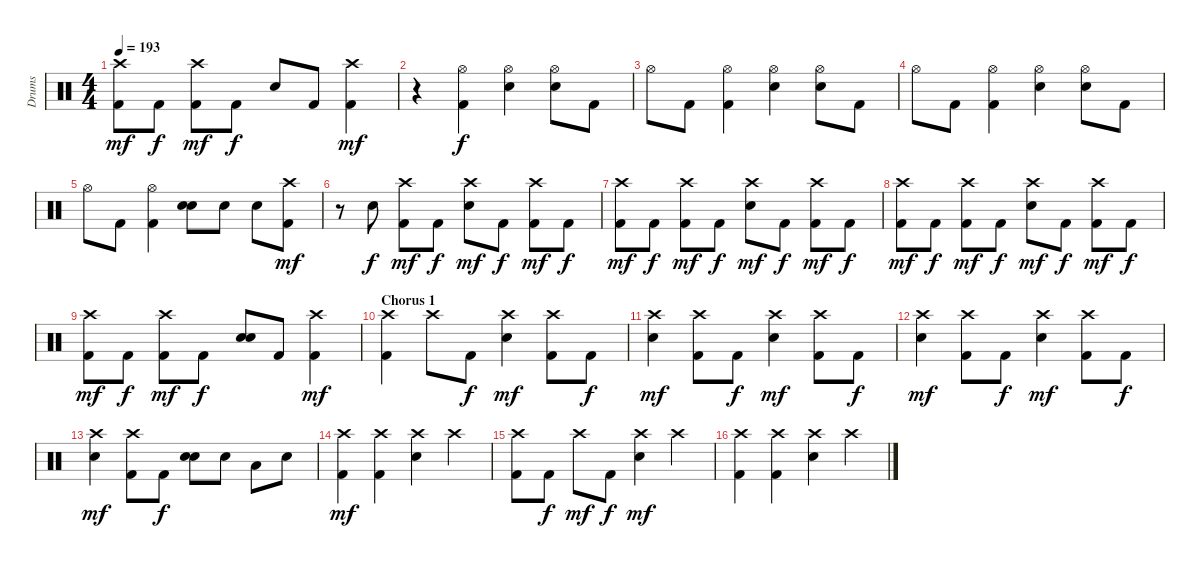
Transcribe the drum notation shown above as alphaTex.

\track ("Drums" "Drums") {instrument percussion}
\staff {score}
\articulation defaults
\ts (4 4)
\tempo 193
\clef neutral
\ks c
("Crash high (hit)" "Kick (hit) 2").8{dy mf} "Kick (hit) 2".8{dy f} ("Crash high (hit)" "Kick (hit) 2").8{dy mf} "Kick (hit) 2".8{dy f} "Electric Snare (hit)".8 "Kick (hit) 2".8 ("Crash high (hit)" "Kick (hit) 2").4{dy mf} |
r.4 ("Hi-Hat (open)" "Kick (hit) 2").4{dy f} ("Hi-Hat (open)" "Electric Snare (hit)").4 ("Hi-Hat (open)" "Electric Snare (hit)").8 "Kick (hit) 2".8 |
"Hi-Hat (open)".8 "Kick (hit) 2".8 ("Hi-Hat (open)" "Kick (hit) 2").4 ("Hi-Hat (open)" "Electric Snare (hit)").4 ("Hi-Hat (open)" "Electric Snare (hit)").8 "Kick (hit) 2".8 |
"Hi-Hat (open)".8 "Kick (hit) 2".8 ("Hi-Hat (open)" "Kick (hit) 2").4 ("Hi-Hat (open)" "Electric Snare (hit)").4 ("Hi-Hat (open)" "Electric Snare (hit)").8 "Kick (hit) 2".8 |
"Hi-Hat (open)".8 "Kick (hit) 2".8 ("Hi-Hat (open)" "Kick (hit) 2").4 ("Electric Snare (hit)" "Electric Snare (hit)").8{bd 120} "Electric Snare (hit)".8 "Electric Snare (hit)".8 ("Crash high (hit)" "Kick (hit) 2").8{dy mf} |
r.8 "Electric Snare (hit)".8{dy f} ("Crash high (hit)" "Kick (hit) 2").8{dy mf} "Kick (hit) 2".8{dy f} ("Crash high (hit)" "Electric Snare (hit)").8{dy mf} "Kick (hit) 2".8{dy f} ("Crash high (hit)" "Kick (hit) 2").8{dy mf} "Kick (hit) 2".8{dy f} |
("Crash high (hit)" "Kick (hit) 2").8{dy mf} "Kick (hit) 2".8{dy f} ("Crash high (hit)" "Kick (hit) 2").8{dy mf} "Kick (hit) 2".8{dy f} ("Crash high (hit)" "Electric Snare (hit)").8{dy mf} "Kick (hit) 2".8{dy f} ("Crash high (hit)" "Kick (hit) 2").8{dy mf} "Kick (hit) 2".8{dy f} |
("Crash high (hit)" "Kick (hit) 2").8{dy mf} "Kick (hit) 2".8{dy f} ("Crash high (hit)" "Kick (hit) 2").8{dy mf} "Kick (hit) 2".8{dy f} ("Crash high (hit)" "Electric Snare (hit)").8{dy mf} "Kick (hit) 2".8{dy f} ("Crash high (hit)" "Kick (hit) 2").8{dy mf} "Kick (hit) 2".8{dy f} |
("Crash high (hit)" "Kick (hit) 2").8{dy mf} "Kick (hit) 2".8{dy f} ("Crash high (hit)" "Kick (hit) 2").8{dy mf} "Kick (hit) 2".8{dy f} ("Electric Snare (hit)" "Electric Snare (hit)").8{bd 120} "Kick (hit) 2".8 ("Crash high (hit)" "Kick (hit) 2").4{dy mf} |
\section ("" "Chorus 1")
("Crash high (hit)" "Kick (hit) 2").4 "Crash high (hit)".8 "Kick (hit) 2".8{dy f} ("Crash high (hit)" "Electric Snare (hit)").4{dy mf} ("Crash high (hit)" "Kick (hit) 2").8 "Kick (hit) 2".8{dy f} |
("Crash high (hit)" "Electric Snare (hit)").4{dy mf} ("Crash high (hit)" "Kick (hit) 2").8 "Kick (hit) 2".8{dy f} ("Crash high (hit)" "Electric Snare (hit)").4{dy mf} ("Crash high (hit)" "Kick (hit) 2").8 "Kick (hit) 2".8{dy f} |
("Crash high (hit)" "Electric Snare (hit)").4{dy mf} ("Crash high (hit)" "Kick (hit) 2").8 "Kick (hit) 2".8{dy f} ("Crash high (hit)" "Electric Snare (hit)").4{dy mf} ("Crash high (hit)" "Kick (hit) 2").8 "Kick (hit) 2".8{dy f} |
("Crash high (hit)" "Electric Snare (hit)").4{dy mf} ("Crash high (hit)" "Kick (hit) 2").8 "Kick (hit) 2".8{dy f} ("Electric Snare (hit)" "Electric Snare (hit)").8{bd 120} "Electric Snare (hit)".8 "Low Tom (hit)".8 "Electric Snare (hit)".8 |
("Crash high (hit)" "Kick (hit) 2").4{dy mf} ("Crash high (hit)" "Kick (hit) 2").4 ("Crash high (hit)" "Electric Snare (hit)").4 "Crash high (hit)".4 |
("Crash high (hit)" "Kick (hit) 2").8 "Kick (hit) 2".8{dy f} "Crash high (hit)".8{dy mf} "Kick (hit) 2".8{dy f} ("Crash high (hit)" "Electric Snare (hit)").4{dy mf} "Crash high (hit)".4 |
("Crash high (hit)" "Kick (hit) 2").4 ("Crash high (hit)" "Kick (hit) 2").4 ("Crash high (hit)" "Electric Snare (hit)").4 "Crash high (hit)".4
